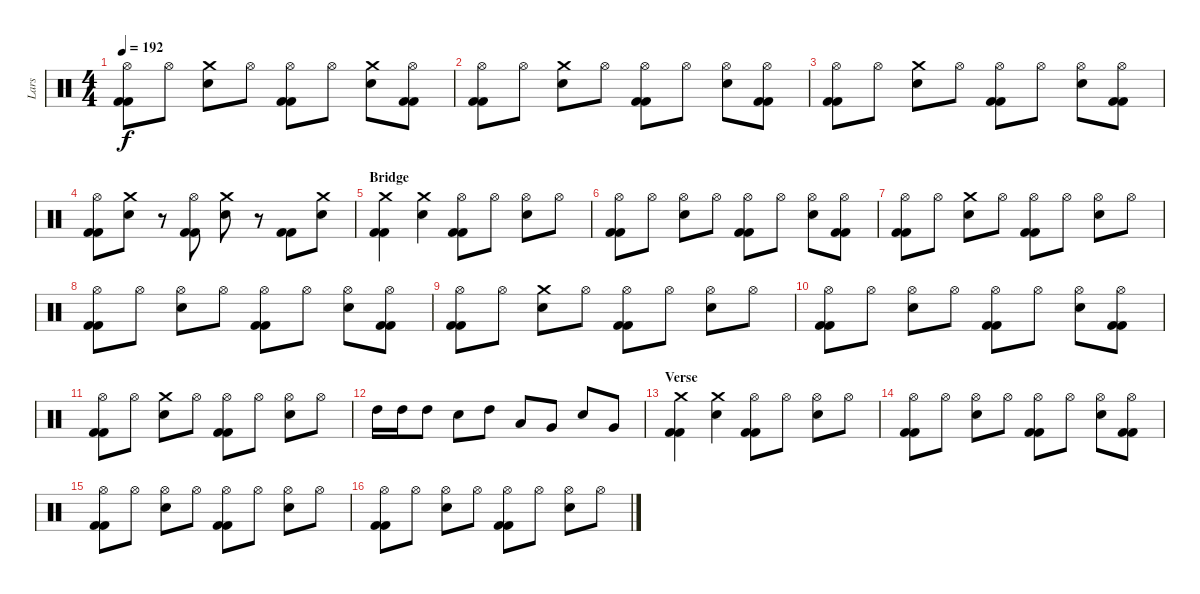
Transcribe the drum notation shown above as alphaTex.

\track ("Lars" "Lars") {instrument percussion}
\staff {score}
\articulation defaults
\ts (4 4)
\tempo 192
\clef neutral
\ks c
("Hi-Hat (open)" "Kick (hit) 2" "Kick (hit) 2").8{dy f} "Hi-Hat (open)".8 ("Electric Snare (hit)" "Crash medium (hit)").8 "Hi-Hat (open)".8 ("Hi-Hat (open)" "Kick (hit) 2" "Kick (hit) 2").8 "Hi-Hat (open)".8 ("Electric Snare (hit)" "Crash medium (hit)").8 ("Hi-Hat (open)" "Kick (hit) 2" "Kick (hit) 2").8 |
("Hi-Hat (open)" "Kick (hit) 2" "Kick (hit) 2").8 "Hi-Hat (open)".8 ("Electric Snare (hit)" "Crash medium (hit)").8 "Hi-Hat (open)".8 ("Hi-Hat (open)" "Kick (hit) 2" "Kick (hit) 2").8 "Hi-Hat (open)".8 ("Electric Snare (hit)" "Hi-Hat (open)").8 ("Hi-Hat (open)" "Kick (hit) 2" "Kick (hit) 2").8 |
("Hi-Hat (open)" "Kick (hit) 2" "Kick (hit) 2").8 "Hi-Hat (open)".8 ("Electric Snare (hit)" "Crash medium (hit)").8 "Hi-Hat (open)".8 ("Hi-Hat (open)" "Kick (hit) 2" "Kick (hit) 2").8 "Hi-Hat (open)".8 ("Electric Snare (hit)" "Hi-Hat (open)").8 ("Hi-Hat (open)" "Kick (hit) 2" "Kick (hit) 2").8 |
("Hi-Hat (open)" "Kick (hit) 2" "Kick (hit) 2").8 ("Electric Snare (hit)" "Crash medium (hit)").8 r.8 ("Hi-Hat (open)" "Kick (hit) 2" "Kick (hit) 2").8 ("Electric Snare (hit)" "Crash medium (hit)").8 r.8 ("Kick (hit) 2" "Kick (hit) 2").8 ("Electric Snare (hit)" "Crash medium (hit)").8 |
\section ("" "Bridge ")
("Crash medium (hit)" "Kick (hit) 2" "Kick (hit) 2").4 ("Electric Snare (hit)" "Crash medium (hit)").4 ("Hi-Hat (open)" "Kick (hit) 2" "Kick (hit) 2").8 "Hi-Hat (open)".8 ("Electric Snare (hit)" "Hi-Hat (open)").8 "Hi-Hat (open)".8 |
("Hi-Hat (open)" "Kick (hit) 2" "Kick (hit) 2").8 "Hi-Hat (open)".8 ("Electric Snare (hit)" "Hi-Hat (open)").8 "Hi-Hat (open)".8 ("Hi-Hat (open)" "Kick (hit) 2" "Kick (hit) 2").8 "Hi-Hat (open)".8 ("Electric Snare (hit)" "Hi-Hat (open)").8 ("Hi-Hat (open)" "Kick (hit) 2" "Kick (hit) 2").8 |
("Hi-Hat (open)" "Kick (hit) 2" "Kick (hit) 2").8 "Hi-Hat (open)".8 ("Electric Snare (hit)" "Crash medium (hit)").8 "Hi-Hat (open)".8 ("Hi-Hat (open)" "Kick (hit) 2" "Kick (hit) 2").8 "Hi-Hat (open)".8 ("Electric Snare (hit)" "Hi-Hat (open)").8 "Hi-Hat (open)".8 |
("Hi-Hat (open)" "Kick (hit) 2" "Kick (hit) 2").8 "Hi-Hat (open)".8 ("Electric Snare (hit)" "Hi-Hat (open)").8 "Hi-Hat (open)".8 ("Hi-Hat (open)" "Kick (hit) 2" "Kick (hit) 2").8 "Hi-Hat (open)".8 ("Electric Snare (hit)" "Hi-Hat (open)").8 ("Hi-Hat (open)" "Kick (hit) 2" "Kick (hit) 2").8 |
("Hi-Hat (open)" "Kick (hit) 2" "Kick (hit) 2").8 "Hi-Hat (open)".8 ("Electric Snare (hit)" "Crash medium (hit)").8 "Hi-Hat (open)".8 ("Hi-Hat (open)" "Kick (hit) 2" "Kick (hit) 2").8 "Hi-Hat (open)".8 ("Electric Snare (hit)" "Hi-Hat (open)").8 "Hi-Hat (open)".8 |
("Hi-Hat (open)" "Kick (hit) 2" "Kick (hit) 2").8 "Hi-Hat (open)".8 ("Electric Snare (hit)" "Hi-Hat (open)").8 "Hi-Hat (open)".8 ("Hi-Hat (open)" "Kick (hit) 2" "Kick (hit) 2").8 "Hi-Hat (open)".8 ("Electric Snare (hit)" "Hi-Hat (open)").8 ("Hi-Hat (open)" "Kick (hit) 2" "Kick (hit) 2").8 |
("Hi-Hat (open)" "Kick (hit) 2" "Kick (hit) 2").8 "Hi-Hat (open)".8 ("Electric Snare (hit)" "Crash medium (hit)").8 "Hi-Hat (open)".8 ("Hi-Hat (open)" "Kick (hit) 2" "Kick (hit) 2").8 "Hi-Hat (open)".8 ("Electric Snare (hit)" "Hi-Hat (open)").8 "Hi-Hat (open)".8 |
"High Tom (hit)".16 "High Tom (hit)".16 "High Tom (hit)".8 "Electric Snare (hit)".8 "High Tom (hit)".8 "Low Tom (hit)".8 "Very Low Tom (hit)".8 "Electric Snare (hit)".8 "Very Low Tom (hit)".8 |
\section ("" "Verse ")
("Crash medium (hit)" "Kick (hit) 2" "Kick (hit) 2").4 ("Electric Snare (hit)" "Crash medium (hit)").4 ("Hi-Hat (open)" "Kick (hit) 2" "Kick (hit) 2").8 "Hi-Hat (open)".8 ("Electric Snare (hit)" "Hi-Hat (open)").8 "Hi-Hat (open)".8 |
("Hi-Hat (open)" "Kick (hit) 2" "Kick (hit) 2").8 "Hi-Hat (open)".8 ("Electric Snare (hit)" "Hi-Hat (open)").8 "Hi-Hat (open)".8 ("Hi-Hat (open)" "Kick (hit) 2" "Kick (hit) 2").8 "Hi-Hat (open)".8 ("Electric Snare (hit)" "Hi-Hat (open)").8 ("Hi-Hat (open)" "Kick (hit) 2" "Kick (hit) 2").8 |
("Hi-Hat (open)" "Kick (hit) 2" "Kick (hit) 2").8 "Hi-Hat (open)".8 ("Electric Snare (hit)" "Hi-Hat (open)").8 "Hi-Hat (open)".8 ("Hi-Hat (open)" "Kick (hit) 2" "Kick (hit) 2").8 "Hi-Hat (open)".8 ("Electric Snare (hit)" "Hi-Hat (open)").8 "Hi-Hat (open)".8 |
("Hi-Hat (open)" "Kick (hit) 2" "Kick (hit) 2").8 "Hi-Hat (open)".8 ("Electric Snare (hit)" "Hi-Hat (open)").8 "Hi-Hat (open)".8 ("Hi-Hat (open)" "Kick (hit) 2" "Kick (hit) 2").8 "Hi-Hat (open)".8 ("Electric Snare (hit)" "Hi-Hat (open)").8 "Hi-Hat (open)".8
